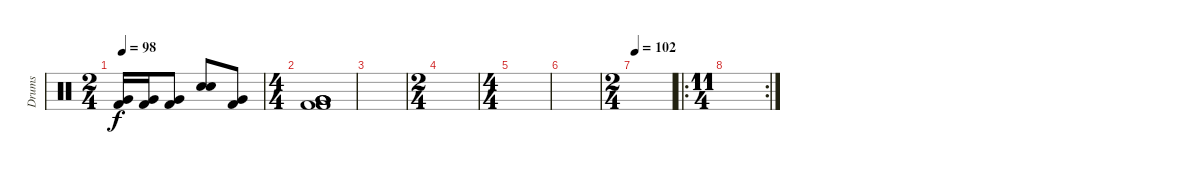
\track ("Drums" "Drums") {instrument percussion}
\staff {score}
\articulation defaults
\ts (2 4)
\tempo 98
\clef neutral
\ks c
("Very Low Tom (hit)" "Kick (hit) 2").16{dy f} ("Very Low Tom (hit)" "Kick (hit) 2").16 ("Very Low Tom (hit)" "Kick (hit) 2").8 ("Electric Snare (hit)" "Snare (hit) 2").8 ("Very Low Tom (hit)" "Kick (hit) 2").8 |
\ts (4 4)
("Very Low Tom (hit)" "Very Low Tom (hit)" "Very Low Tom (hit)" "Very Low Tom (hit)" "Kick (hit) 2" "Kick (hit) 2").1 |
|
\ts (2 4)
|
\ts (4 4)
|
|
\ts (2 4)
\tempo 102
|
\ro
\rc 2
\ts (11 4)
